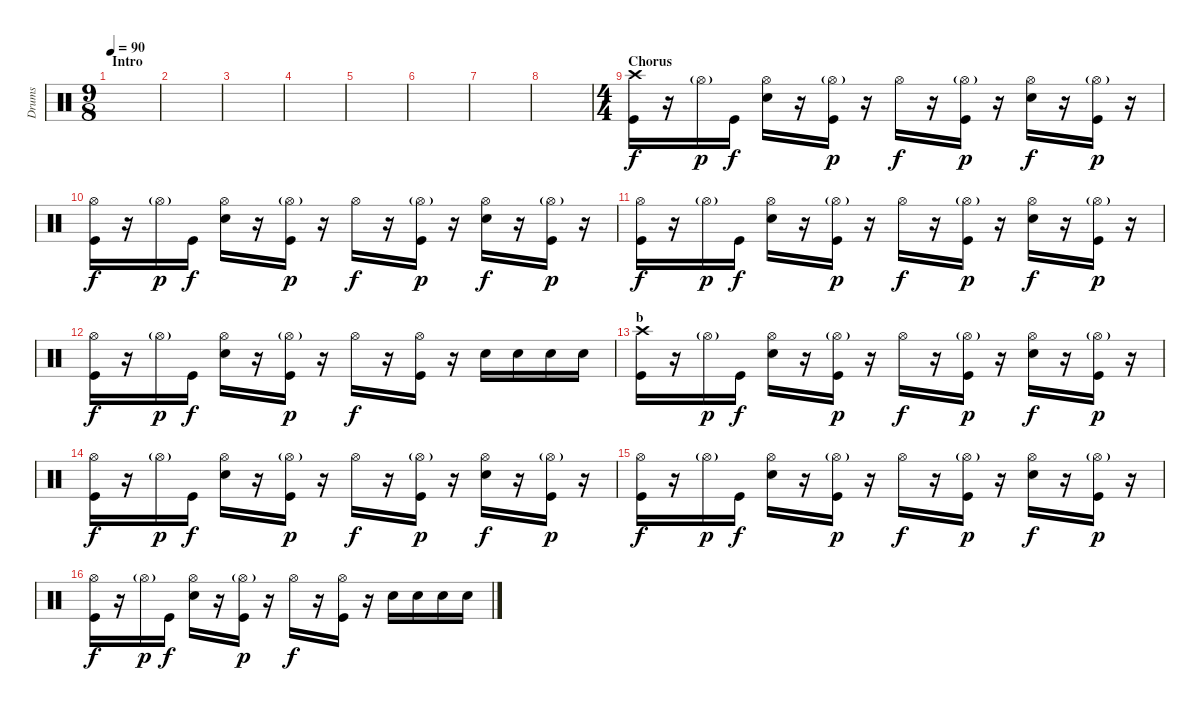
\track ("Drums" "Drums") {instrument percussion}
\staff {score}
\articulation defaults
\ts (9 8)
\section ("" "Intro")
\tempo 90
\clef neutral
\ks c
|
|
|
|
|
|
|
|
\ts (4 4)
\section ("" "Chorus")
("Crash high (hit)" "Kick (hit)").16 r.16 "Hi-Hat (open)"{g}.16{dy p} "Kick (hit)".16{dy f} ("Hi-Hat (open)" "Snare (hit) 2").16 r.16 ("Hi-Hat (open)"{g} "Kick (hit)").16{dy p} r.16 "Hi-Hat (open)".16{dy f} r.16 ("Hi-Hat (open)"{g} "Kick (hit)").16{dy p} r.16 ("Hi-Hat (open)" "Snare (hit) 2").16{dy f} r.16 ("Hi-Hat (open)"{g} "Kick (hit)").16{dy p} r.16 |
("Hi-Hat (open)" "Kick (hit)").16{dy f} r.16 "Hi-Hat (open)"{g}.16{dy p} "Kick (hit)".16{dy f} ("Hi-Hat (open)" "Snare (hit) 2").16 r.16 ("Hi-Hat (open)"{g} "Kick (hit)").16{dy p} r.16 "Hi-Hat (open)".16{dy f} r.16 ("Hi-Hat (open)"{g} "Kick (hit)").16{dy p} r.16 ("Hi-Hat (open)" "Snare (hit) 2").16{dy f} r.16 ("Hi-Hat (open)"{g} "Kick (hit)").16{dy p} r.16 |
("Hi-Hat (open)" "Kick (hit)").16{dy f} r.16 "Hi-Hat (open)"{g}.16{dy p} "Kick (hit)".16{dy f} ("Hi-Hat (open)" "Snare (hit) 2").16 r.16 ("Hi-Hat (open)"{g} "Kick (hit)").16{dy p} r.16 "Hi-Hat (open)".16{dy f} r.16 ("Hi-Hat (open)"{g} "Kick (hit)").16{dy p} r.16 ("Hi-Hat (open)" "Snare (hit) 2").16{dy f} r.16 ("Hi-Hat (open)"{g} "Kick (hit)").16{dy p} r.16 |
("Hi-Hat (open)" "Kick (hit)").16{dy f} r.16 "Hi-Hat (open)"{g}.16{dy p} "Kick (hit)".16{dy f} ("Hi-Hat (open)" "Snare (hit) 2").16 r.16 ("Hi-Hat (open)"{g} "Kick (hit)").16{dy p} r.16 "Hi-Hat (open)".16{dy f} r.16 ("Hi-Hat (open)" "Kick (hit)").16 r.16 "Snare (hit) 2".16 "Snare (hit) 2".16 "Snare (hit) 2".16 "Snare (hit) 2".16 |
\section ("" "b")
("Crash high (hit)" "Kick (hit)").16 r.16 "Hi-Hat (open)"{g}.16{dy p} "Kick (hit)".16{dy f} ("Hi-Hat (open)" "Snare (hit) 2").16 r.16 ("Hi-Hat (open)"{g} "Kick (hit)").16{dy p} r.16 "Hi-Hat (open)".16{dy f} r.16 ("Hi-Hat (open)"{g} "Kick (hit)").16{dy p} r.16 ("Hi-Hat (open)" "Snare (hit) 2").16{dy f} r.16 ("Hi-Hat (open)"{g} "Kick (hit)").16{dy p} r.16 |
("Hi-Hat (open)" "Kick (hit)").16{dy f} r.16 "Hi-Hat (open)"{g}.16{dy p} "Kick (hit)".16{dy f} ("Hi-Hat (open)" "Snare (hit) 2").16 r.16 ("Hi-Hat (open)"{g} "Kick (hit)").16{dy p} r.16 "Hi-Hat (open)".16{dy f} r.16 ("Hi-Hat (open)"{g} "Kick (hit)").16{dy p} r.16 ("Hi-Hat (open)" "Snare (hit) 2").16{dy f} r.16 ("Hi-Hat (open)"{g} "Kick (hit)").16{dy p} r.16 |
("Hi-Hat (open)" "Kick (hit)").16{dy f} r.16 "Hi-Hat (open)"{g}.16{dy p} "Kick (hit)".16{dy f} ("Hi-Hat (open)" "Snare (hit) 2").16 r.16 ("Hi-Hat (open)"{g} "Kick (hit)").16{dy p} r.16 "Hi-Hat (open)".16{dy f} r.16 ("Hi-Hat (open)"{g} "Kick (hit)").16{dy p} r.16 ("Hi-Hat (open)" "Snare (hit) 2").16{dy f} r.16 ("Hi-Hat (open)"{g} "Kick (hit)").16{dy p} r.16 |
("Hi-Hat (open)" "Kick (hit)").16{dy f} r.16 "Hi-Hat (open)"{g}.16{dy p} "Kick (hit)".16{dy f} ("Hi-Hat (open)" "Snare (hit) 2").16 r.16 ("Hi-Hat (open)"{g} "Kick (hit)").16{dy p} r.16 "Hi-Hat (open)".16{dy f} r.16 ("Hi-Hat (open)" "Kick (hit)").16 r.16 "Snare (hit) 2".16 "Snare (hit) 2".16 "Snare (hit) 2".16 "Snare (hit) 2".16
